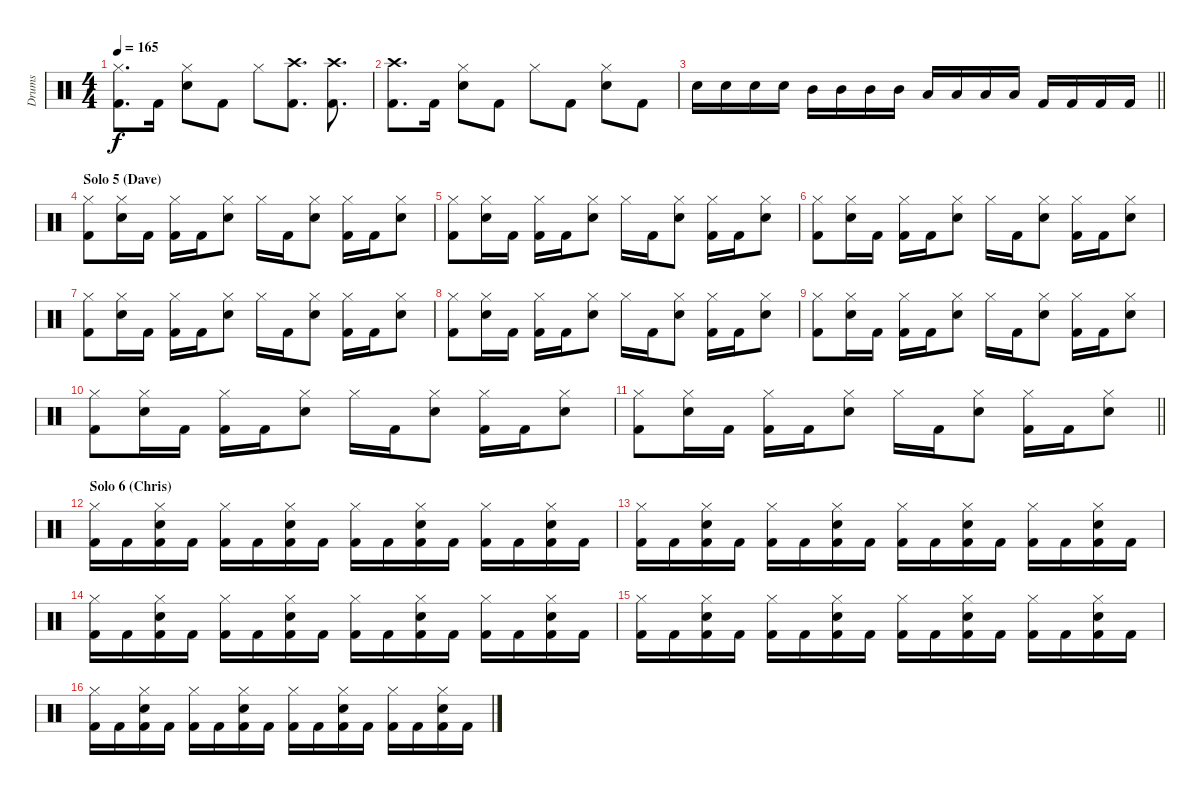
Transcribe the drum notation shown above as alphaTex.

\track ("Drums" "Drums") {instrument percussion}
\staff {score}
\articulation defaults
\ts (4 4)
\tempo 165
\clef neutral
\ks c
("Hi-Hat (closed)" "Kick (hit) 2").8{d dy f} "Kick (hit) 2".16 ("Hi-Hat (closed)" "Snare (hit) 2").8 "Kick (hit) 2".8 "Hi-Hat (closed)".8 ("Crash high (hit)" "Kick (hit) 2").8{d} ("Crash high (hit)" "Kick (hit) 2").8{d} |
("Crash high (hit)" "Kick (hit) 2").8{d} "Kick (hit) 2".16 ("Hi-Hat (closed)" "Snare (hit) 2").8 "Kick (hit) 2".8 "Hi-Hat (closed)".8 "Kick (hit) 2".8 ("Hi-Hat (closed)" "Snare (hit) 2").8 "Kick (hit) 2".8 |
\barLineRight lightlight "Snare (hit) 2".16 "Snare (hit) 2".16 "Snare (hit) 2".16 "Snare (hit) 2".16 "Mid Tom (hit)".16 "Mid Tom (hit)".16 "Mid Tom (hit)".16 "Mid Tom (hit)".16 "Low Floor Tom (hit)".16 "Low Floor Tom (hit)".16 "Low Floor Tom (hit)".16 "Low Floor Tom (hit)".16 "Kick (hit) 2".16 "Kick (hit) 2".16 "Kick (hit) 2".16 "Kick (hit) 2".16
|
\section ("" "Solo 5 (Dave)")
("Hi-Hat (closed)" "Kick (hit) 2").8 ("Hi-Hat (closed)" "Snare (hit) 2").16 "Kick (hit) 2".16 ("Hi-Hat (closed)" "Kick (hit) 2").16 "Kick (hit) 2".16 ("Hi-Hat (closed)" "Snare (hit) 2").8 "Hi-Hat (closed)".16 "Kick (hit) 2".16 ("Hi-Hat (closed)" "Snare (hit) 2").8 ("Hi-Hat (closed)" "Kick (hit) 2").16 "Kick (hit) 2".16 ("Hi-Hat (closed)" "Snare (hit) 2").8 |
("Hi-Hat (closed)" "Kick (hit) 2").8 ("Hi-Hat (closed)" "Snare (hit) 2").16 "Kick (hit) 2".16 ("Hi-Hat (closed)" "Kick (hit) 2").16 "Kick (hit) 2".16 ("Hi-Hat (closed)" "Snare (hit) 2").8 "Hi-Hat (closed)".16 "Kick (hit) 2".16 ("Hi-Hat (closed)" "Snare (hit) 2").8 ("Hi-Hat (closed)" "Kick (hit) 2").16 "Kick (hit) 2".16 ("Hi-Hat (closed)" "Snare (hit) 2").8 |
("Hi-Hat (closed)" "Kick (hit) 2").8 ("Hi-Hat (closed)" "Snare (hit) 2").16 "Kick (hit) 2".16 ("Hi-Hat (closed)" "Kick (hit) 2").16 "Kick (hit) 2".16 ("Hi-Hat (closed)" "Snare (hit) 2").8 "Hi-Hat (closed)".16 "Kick (hit) 2".16 ("Hi-Hat (closed)" "Snare (hit) 2").8 ("Hi-Hat (closed)" "Kick (hit) 2").16 "Kick (hit) 2".16 ("Hi-Hat (closed)" "Snare (hit) 2").8 |
("Hi-Hat (closed)" "Kick (hit) 2").8 ("Hi-Hat (closed)" "Snare (hit) 2").16 "Kick (hit) 2".16 ("Hi-Hat (closed)" "Kick (hit) 2").16 "Kick (hit) 2".16 ("Hi-Hat (closed)" "Snare (hit) 2").8 "Hi-Hat (closed)".16 "Kick (hit) 2".16 ("Hi-Hat (closed)" "Snare (hit) 2").8 ("Hi-Hat (closed)" "Kick (hit) 2").16 "Kick (hit) 2".16 ("Hi-Hat (closed)" "Snare (hit) 2").8 |
("Hi-Hat (closed)" "Kick (hit) 2").8 ("Hi-Hat (closed)" "Snare (hit) 2").16 "Kick (hit) 2".16 ("Hi-Hat (closed)" "Kick (hit) 2").16 "Kick (hit) 2".16 ("Hi-Hat (closed)" "Snare (hit) 2").8 "Hi-Hat (closed)".16 "Kick (hit) 2".16 ("Hi-Hat (closed)" "Snare (hit) 2").8 ("Hi-Hat (closed)" "Kick (hit) 2").16 "Kick (hit) 2".16 ("Hi-Hat (closed)" "Snare (hit) 2").8 |
("Hi-Hat (closed)" "Kick (hit) 2").8 ("Hi-Hat (closed)" "Snare (hit) 2").16 "Kick (hit) 2".16 ("Hi-Hat (closed)" "Kick (hit) 2").16 "Kick (hit) 2".16 ("Hi-Hat (closed)" "Snare (hit) 2").8 "Hi-Hat (closed)".16 "Kick (hit) 2".16 ("Hi-Hat (closed)" "Snare (hit) 2").8 ("Hi-Hat (closed)" "Kick (hit) 2").16 "Kick (hit) 2".16 ("Hi-Hat (closed)" "Snare (hit) 2").8 |
("Hi-Hat (closed)" "Kick (hit) 2").8 ("Hi-Hat (closed)" "Snare (hit) 2").16 "Kick (hit) 2".16 ("Hi-Hat (closed)" "Kick (hit) 2").16 "Kick (hit) 2".16 ("Hi-Hat (closed)" "Snare (hit) 2").8 "Hi-Hat (closed)".16 "Kick (hit) 2".16 ("Hi-Hat (closed)" "Snare (hit) 2").8 ("Hi-Hat (closed)" "Kick (hit) 2").16 "Kick (hit) 2".16 ("Hi-Hat (closed)" "Snare (hit) 2").8 |
\barLineRight lightlight
("Hi-Hat (closed)" "Kick (hit) 2").8 ("Hi-Hat (closed)" "Snare (hit) 2").16 "Kick (hit) 2".16 ("Hi-Hat (closed)" "Kick (hit) 2").16 "Kick (hit) 2".16 ("Hi-Hat (closed)" "Snare (hit) 2").8 "Hi-Hat (closed)".16 "Kick (hit) 2".16 ("Hi-Hat (closed)" "Snare (hit) 2").8 ("Hi-Hat (closed)" "Kick (hit) 2").16 "Kick (hit) 2".16 ("Hi-Hat (closed)" "Snare (hit) 2").8 |
\section ("" "Solo 6 (Chris)")
("Hi-Hat (closed)" "Kick (hit) 2").16 "Kick (hit) 2".16 ("Hi-Hat (closed)" "Snare (hit) 2" "Kick (hit) 2").16 "Kick (hit) 2".16 ("Hi-Hat (closed)" "Kick (hit) 2").16 "Kick (hit) 2".16 ("Hi-Hat (closed)" "Snare (hit) 2" "Kick (hit) 2").16 "Kick (hit) 2".16 ("Hi-Hat (closed)" "Kick (hit) 2").16 "Kick (hit) 2".16 ("Hi-Hat (closed)" "Snare (hit) 2" "Kick (hit) 2").16 "Kick (hit) 2".16 ("Hi-Hat (closed)" "Kick (hit) 2").16 "Kick (hit) 2".16 ("Hi-Hat (closed)" "Snare (hit) 2" "Kick (hit) 2").16 "Kick (hit) 2".16 |
("Hi-Hat (closed)" "Kick (hit) 2").16 "Kick (hit) 2".16 ("Hi-Hat (closed)" "Snare (hit) 2" "Kick (hit) 2").16 "Kick (hit) 2".16 ("Hi-Hat (closed)" "Kick (hit) 2").16 "Kick (hit) 2".16 ("Hi-Hat (closed)" "Snare (hit) 2" "Kick (hit) 2").16 "Kick (hit) 2".16 ("Hi-Hat (closed)" "Kick (hit) 2").16 "Kick (hit) 2".16 ("Hi-Hat (closed)" "Snare (hit) 2" "Kick (hit) 2").16 "Kick (hit) 2".16 ("Hi-Hat (closed)" "Kick (hit) 2").16 "Kick (hit) 2".16 ("Hi-Hat (closed)" "Snare (hit) 2" "Kick (hit) 2").16 "Kick (hit) 2".16 |
("Hi-Hat (closed)" "Kick (hit) 2").16 "Kick (hit) 2".16 ("Hi-Hat (closed)" "Snare (hit) 2" "Kick (hit) 2").16 "Kick (hit) 2".16 ("Hi-Hat (closed)" "Kick (hit) 2").16 "Kick (hit) 2".16 ("Hi-Hat (closed)" "Snare (hit) 2" "Kick (hit) 2").16 "Kick (hit) 2".16 ("Hi-Hat (closed)" "Kick (hit) 2").16 "Kick (hit) 2".16 ("Hi-Hat (closed)" "Snare (hit) 2" "Kick (hit) 2").16 "Kick (hit) 2".16 ("Hi-Hat (closed)" "Kick (hit) 2").16 "Kick (hit) 2".16 ("Hi-Hat (closed)" "Snare (hit) 2" "Kick (hit) 2").16 "Kick (hit) 2".16 |
("Hi-Hat (closed)" "Kick (hit) 2").16 "Kick (hit) 2".16 ("Hi-Hat (closed)" "Snare (hit) 2" "Kick (hit) 2").16 "Kick (hit) 2".16 ("Hi-Hat (closed)" "Kick (hit) 2").16 "Kick (hit) 2".16 ("Hi-Hat (closed)" "Snare (hit) 2" "Kick (hit) 2").16 "Kick (hit) 2".16 ("Hi-Hat (closed)" "Kick (hit) 2").16 "Kick (hit) 2".16 ("Hi-Hat (closed)" "Snare (hit) 2" "Kick (hit) 2").16 "Kick (hit) 2".16 ("Hi-Hat (closed)" "Kick (hit) 2").16 "Kick (hit) 2".16 ("Hi-Hat (closed)" "Snare (hit) 2" "Kick (hit) 2").16 "Kick (hit) 2".16 |
("Hi-Hat (closed)" "Kick (hit) 2").16 "Kick (hit) 2".16 ("Hi-Hat (closed)" "Snare (hit) 2" "Kick (hit) 2").16 "Kick (hit) 2".16 ("Hi-Hat (closed)" "Kick (hit) 2").16 "Kick (hit) 2".16 ("Hi-Hat (closed)" "Snare (hit) 2" "Kick (hit) 2").16 "Kick (hit) 2".16 ("Hi-Hat (closed)" "Kick (hit) 2").16 "Kick (hit) 2".16 ("Hi-Hat (closed)" "Snare (hit) 2" "Kick (hit) 2").16 "Kick (hit) 2".16 ("Hi-Hat (closed)" "Kick (hit) 2").16 "Kick (hit) 2".16 ("Hi-Hat (closed)" "Snare (hit) 2" "Kick (hit) 2").16 "Kick (hit) 2".16
